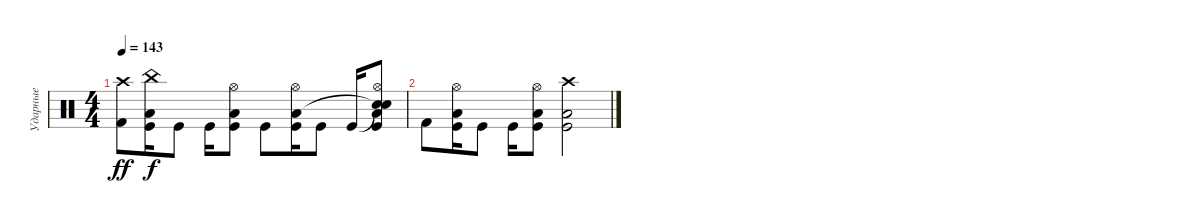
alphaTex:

\track ("Ударные" "Ударные") {instrument percussion}
\staff {score}
\articulation defaults
\ts (4 4)
\section ("" " ")
\tempo 143
\clef neutral
\ks c
("Crash high (hit)" "Kick (hit) 2").8{dy ff balance 14} ("China (hit)" "Low Tom (hit)" "Kick (hit)").16{dy f} "Kick (hit)".8{balance 8} "Kick (hit)".16 ("Hi-Hat (open)" "Low Tom (hit)" "Kick (hit)").8 "Kick (hit)".8 ("Hi-Hat (open)" "Low Tom (hit)" "Kick (hit)").16 "Kick (hit)".8 "Kick (hit)".16 ("Snare (hit)"{t} "Snare (hit)"{t} "Hi-Hat (open)" "Low Tom (hit)" "Kick (hit)").8 |
"Kick (hit) 2".8 ("Hi-Hat (open)" "Low Tom (hit)" "Kick (hit)").16 "Kick (hit)".8 "Kick (hit)".16 ("Hi-Hat (open)" "Low Tom (hit)" "Kick (hit)").8 ("Crash high (hit)" "Low Tom (hit)" "Kick (hit)").2
